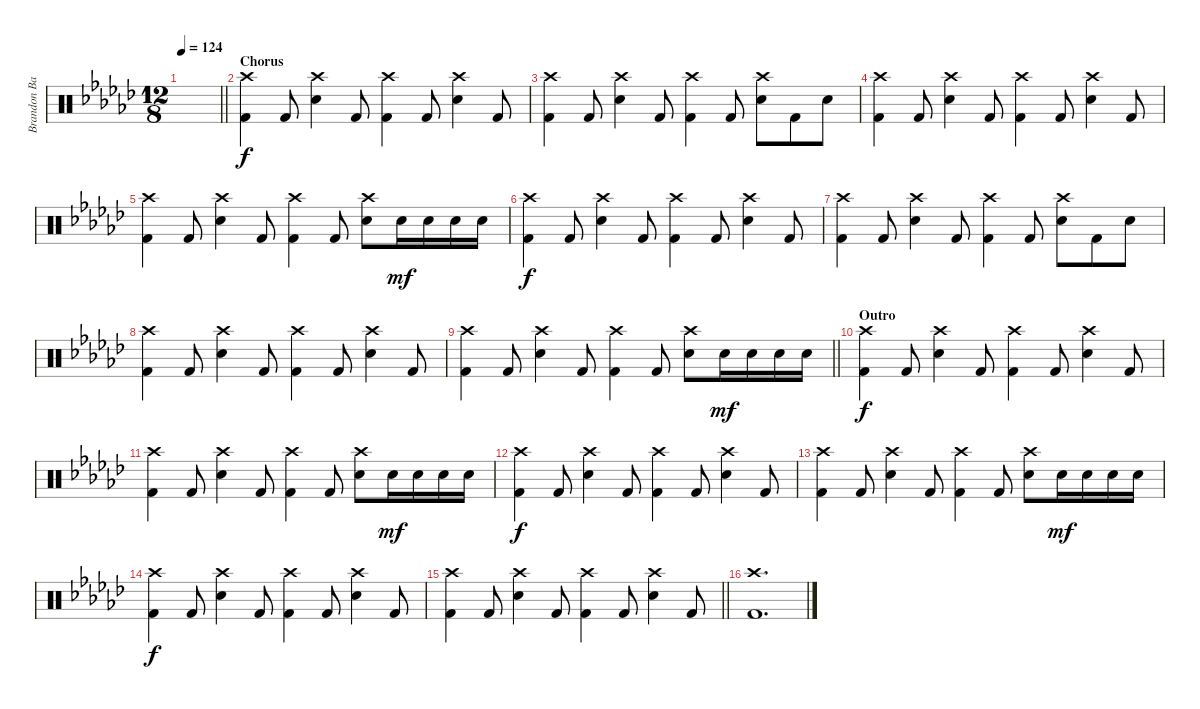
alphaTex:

\track ("Brandon Barnes - Drums" "Brandon Ba") {instrument percussion}
\staff {score}
\articulation defaults
\ts (12 8)
\tempo 124
\clef neutral
\barLineRight lightlight
\ks gb
|
\section ("" "Chorus")
("Crash high (hit)" "Kick (hit) 2").4 "Kick (hit) 2".8 ("Snare (hit) 2" "Crash high (hit)").4 "Kick (hit) 2".8 ("Crash high (hit)" "Kick (hit) 2").4 "Kick (hit) 2".8 ("Snare (hit) 2" "Crash high (hit)").4 "Kick (hit) 2".8 |
("Crash high (hit)" "Kick (hit) 2").4 "Kick (hit) 2".8 ("Snare (hit) 2" "Crash high (hit)").4 "Kick (hit) 2".8 ("Crash high (hit)" "Kick (hit) 2").4 "Kick (hit) 2".8 ("Snare (hit) 2" "Crash high (hit)").8 "Kick (hit) 2".8 "Snare (hit) 2".8 |
("Crash high (hit)" "Kick (hit) 2").4 "Kick (hit) 2".8 ("Snare (hit) 2" "Crash high (hit)").4 "Kick (hit) 2".8 ("Crash high (hit)" "Kick (hit) 2").4 "Kick (hit) 2".8 ("Snare (hit) 2" "Crash high (hit)").4 "Kick (hit) 2".8 |
("Crash high (hit)" "Kick (hit) 2").4 "Kick (hit) 2".8 ("Snare (hit) 2" "Crash high (hit)").4 "Kick (hit) 2".8 ("Crash high (hit)" "Kick (hit) 2").4 "Kick (hit) 2".8 ("Snare (hit) 2" "Crash high (hit)").8 "Snare (hit) 2".16{dy mf} "Snare (hit) 2".16 "Snare (hit) 2".16 "Snare (hit) 2".16 |
("Crash high (hit)" "Kick (hit) 2").4{dy f} "Kick (hit) 2".8 ("Snare (hit) 2" "Crash high (hit)").4 "Kick (hit) 2".8 ("Crash high (hit)" "Kick (hit) 2").4 "Kick (hit) 2".8 ("Snare (hit) 2" "Crash high (hit)").4 "Kick (hit) 2".8 |
("Crash high (hit)" "Kick (hit) 2").4 "Kick (hit) 2".8 ("Snare (hit) 2" "Crash high (hit)").4 "Kick (hit) 2".8 ("Crash high (hit)" "Kick (hit) 2").4 "Kick (hit) 2".8 ("Snare (hit) 2" "Crash high (hit)").8 "Kick (hit) 2".8 "Snare (hit) 2".8 |
("Crash high (hit)" "Kick (hit) 2").4 "Kick (hit) 2".8 ("Snare (hit) 2" "Crash high (hit)").4 "Kick (hit) 2".8 ("Crash high (hit)" "Kick (hit) 2").4 "Kick (hit) 2".8 ("Snare (hit) 2" "Crash high (hit)").4 "Kick (hit) 2".8 |
\barLineRight lightlight
("Crash high (hit)" "Kick (hit) 2").4 "Kick (hit) 2".8 ("Snare (hit) 2" "Crash high (hit)").4 "Kick (hit) 2".8 ("Crash high (hit)" "Kick (hit) 2").4 "Kick (hit) 2".8 ("Snare (hit) 2" "Crash high (hit)").8 "Snare (hit) 2".16{dy mf} "Snare (hit) 2".16 "Snare (hit) 2".16 "Snare (hit) 2".16 |
\section ("" "Outro")
("Crash high (hit)" "Kick (hit) 2").4{dy f} "Kick (hit) 2".8 ("Snare (hit) 2" "Crash high (hit)").4 "Kick (hit) 2".8 ("Crash high (hit)" "Kick (hit) 2").4 "Kick (hit) 2".8 ("Snare (hit) 2" "Crash high (hit)").4 "Kick (hit) 2".8 |
("Crash high (hit)" "Kick (hit) 2").4 "Kick (hit) 2".8 ("Snare (hit) 2" "Crash high (hit)").4 "Kick (hit) 2".8 ("Crash high (hit)" "Kick (hit) 2").4 "Kick (hit) 2".8 ("Snare (hit) 2" "Crash high (hit)").8 "Snare (hit) 2".16{dy mf} "Snare (hit) 2".16 "Snare (hit) 2".16 "Snare (hit) 2".16 |
("Crash high (hit)" "Kick (hit) 2").4{dy f} "Kick (hit) 2".8 ("Snare (hit) 2" "Crash high (hit)").4 "Kick (hit) 2".8 ("Crash high (hit)" "Kick (hit) 2").4 "Kick (hit) 2".8 ("Snare (hit) 2" "Crash high (hit)").4 "Kick (hit) 2".8 |
("Crash high (hit)" "Kick (hit) 2").4 "Kick (hit) 2".8 ("Snare (hit) 2" "Crash high (hit)").4 "Kick (hit) 2".8 ("Crash high (hit)" "Kick (hit) 2").4 "Kick (hit) 2".8 ("Snare (hit) 2" "Crash high (hit)").8 "Snare (hit) 2".16{dy mf} "Snare (hit) 2".16 "Snare (hit) 2".16 "Snare (hit) 2".16 |
("Crash high (hit)" "Kick (hit) 2").4{dy f} "Kick (hit) 2".8 ("Snare (hit) 2" "Crash high (hit)").4 "Kick (hit) 2".8 ("Crash high (hit)" "Kick (hit) 2").4 "Kick (hit) 2".8 ("Snare (hit) 2" "Crash high (hit)").4 "Kick (hit) 2".8 |
\barLineRight lightlight
("Crash high (hit)" "Kick (hit) 2").4 "Kick (hit) 2".8 ("Snare (hit) 2" "Crash high (hit)").4 "Kick (hit) 2".8 ("Crash high (hit)" "Kick (hit) 2").4 "Kick (hit) 2".8 ("Snare (hit) 2" "Crash high (hit)").4 "Kick (hit) 2".8 |
("Crash high (hit)" "Kick (hit) 2").1{d}
